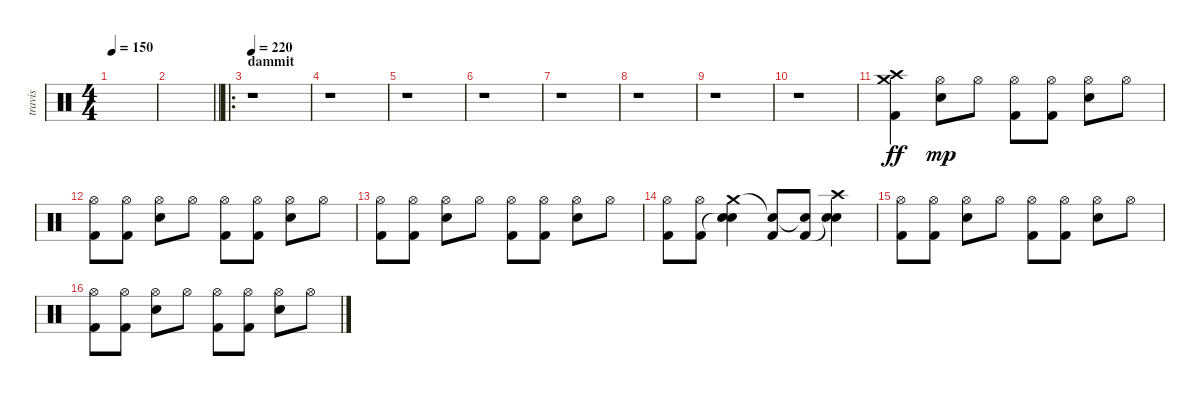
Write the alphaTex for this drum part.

\track ("travis" "travis") {instrument percussion}
\staff {score}
\articulation defaults
\ts (4 4)
\tempo 150
\clef neutral
\ks c
|
\barLineRight lightlight
|
\ro
\section ("" "dammit")
\tempo 220
r.1 |
r.1 |
r.1 |
r.1 |
r.1 |
r.1 |
r.1 |
r.1 |
("Crash high (hit)" "Crash medium (hit)" "Kick (hit) 2").4{dy ff} ("Hi-Hat (open)" "Electric Snare (hit)").8{dy mp} "Hi-Hat (open)".8 ("Hi-Hat (open)" "Kick (hit) 2").8 ("Hi-Hat (open)" "Kick (hit) 2").8 ("Hi-Hat (open)" "Electric Snare (hit)").8 "Hi-Hat (open)".8 |
("Hi-Hat (open)" "Kick (hit) 2").8 ("Hi-Hat (open)" "Kick (hit) 2").8 ("Hi-Hat (open)" "Electric Snare (hit)").8 "Hi-Hat (open)".8 ("Hi-Hat (open)" "Kick (hit) 2").8 ("Hi-Hat (open)" "Kick (hit) 2").8 ("Hi-Hat (open)" "Electric Snare (hit)").8 "Hi-Hat (open)".8 |
("Hi-Hat (open)" "Kick (hit) 2").8 ("Hi-Hat (open)" "Kick (hit) 2").8 ("Hi-Hat (open)" "Electric Snare (hit)").8 "Hi-Hat (open)".8 ("Hi-Hat (open)" "Kick (hit) 2").8 ("Hi-Hat (open)" "Kick (hit) 2").8 ("Hi-Hat (open)" "Electric Snare (hit)").8 "Hi-Hat (open)".8 |
("Hi-Hat (open)" "Kick (hit) 2").8 ("Hi-Hat (open)" "Kick (hit) 2").8 ("Crash medium (hit)" "Snare (hit)"{t} "Electric Snare (hit)").4 ("Snare (hit)"{t} "Kick (hit) 2").8 ("Snare (hit)"{t} "Kick (hit) 2").8 ("Crash high (hit)" "Snare (hit)"{t} "Electric Snare (hit)").4 |
("Hi-Hat (open)" "Kick (hit) 2").8 ("Hi-Hat (open)" "Kick (hit) 2").8 ("Hi-Hat (open)" "Electric Snare (hit)").8 "Hi-Hat (open)".8 ("Hi-Hat (open)" "Kick (hit) 2").8 ("Hi-Hat (open)" "Kick (hit) 2").8 ("Hi-Hat (open)" "Electric Snare (hit)").8 "Hi-Hat (open)".8 |
("Hi-Hat (open)" "Kick (hit) 2").8 ("Hi-Hat (open)" "Kick (hit) 2").8 ("Hi-Hat (open)" "Electric Snare (hit)").8 "Hi-Hat (open)".8 ("Hi-Hat (open)" "Kick (hit) 2").8 ("Hi-Hat (open)" "Kick (hit) 2").8 ("Hi-Hat (open)" "Electric Snare (hit)").8 "Hi-Hat (open)".8
